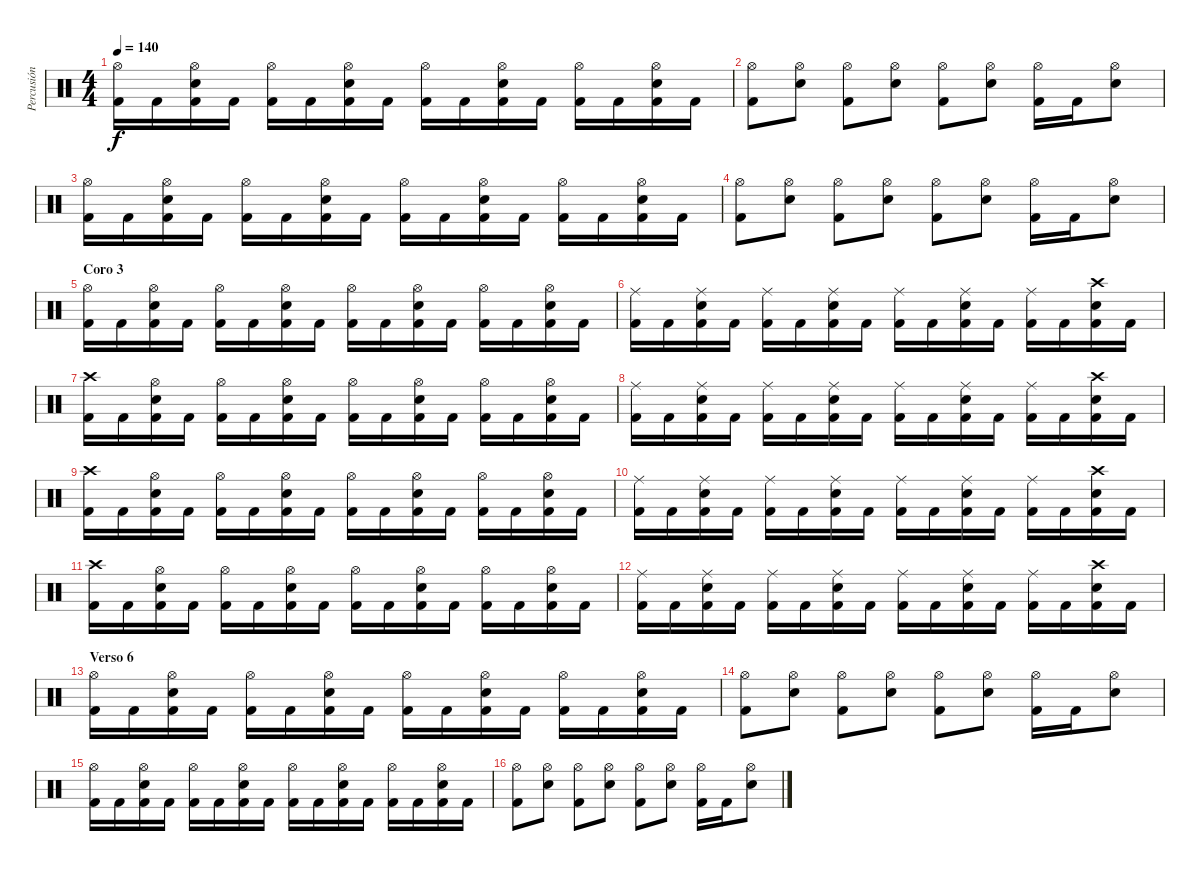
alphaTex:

\track ("Percusión" "Percusión") {instrument percussion}
\staff {score}
\articulation defaults
\ts (4 4)
\tempo 140
\clef neutral
\ks c
("Hi-Hat (open)" "Kick (hit) 2").16{dy f} "Kick (hit) 2".16 ("Hi-Hat (open)" "Snare (hit) 2" "Kick (hit) 2").16 "Kick (hit) 2".16 ("Hi-Hat (open)" "Kick (hit) 2").16 "Kick (hit) 2".16 ("Hi-Hat (open)" "Snare (hit) 2" "Kick (hit) 2").16 "Kick (hit) 2".16 ("Hi-Hat (open)" "Kick (hit) 2").16 "Kick (hit) 2".16 ("Hi-Hat (open)" "Snare (hit) 2" "Kick (hit) 2").16 "Kick (hit) 2".16 ("Hi-Hat (open)" "Kick (hit) 2").16 "Kick (hit) 2".16 ("Hi-Hat (open)" "Snare (hit) 2" "Kick (hit) 2").16 "Kick (hit) 2".16 |
("Hi-Hat (open)" "Kick (hit) 2").8 ("Hi-Hat (open)" "Snare (hit) 2").8 ("Hi-Hat (open)" "Kick (hit) 2").8 ("Hi-Hat (open)" "Snare (hit) 2").8 ("Hi-Hat (open)" "Kick (hit) 2").8 ("Hi-Hat (open)" "Snare (hit) 2").8 ("Hi-Hat (open)" "Kick (hit) 2").16 "Kick (hit) 2".16 ("Hi-Hat (open)" "Snare (hit) 2").8 |
("Hi-Hat (open)" "Kick (hit) 2").16 "Kick (hit) 2".16 ("Hi-Hat (open)" "Snare (hit) 2" "Kick (hit) 2").16 "Kick (hit) 2".16 ("Hi-Hat (open)" "Kick (hit) 2").16 "Kick (hit) 2".16 ("Hi-Hat (open)" "Snare (hit) 2" "Kick (hit) 2").16 "Kick (hit) 2".16 ("Hi-Hat (open)" "Kick (hit) 2").16 "Kick (hit) 2".16 ("Hi-Hat (open)" "Snare (hit) 2" "Kick (hit) 2").16 "Kick (hit) 2".16 ("Hi-Hat (open)" "Kick (hit) 2").16 "Kick (hit) 2".16 ("Hi-Hat (open)" "Snare (hit) 2" "Kick (hit) 2").16 "Kick (hit) 2".16 |
("Hi-Hat (open)" "Kick (hit) 2").8 ("Hi-Hat (open)" "Snare (hit) 2").8 ("Hi-Hat (open)" "Kick (hit) 2").8 ("Hi-Hat (open)" "Snare (hit) 2").8 ("Hi-Hat (open)" "Kick (hit) 2").8 ("Hi-Hat (open)" "Snare (hit) 2").8 ("Hi-Hat (open)" "Kick (hit) 2").16 "Kick (hit) 2".16 ("Hi-Hat (open)" "Snare (hit) 2").8 |
\section ("" "Coro 3")
("Hi-Hat (open)" "Kick (hit) 2").16 "Kick (hit) 2".16 ("Hi-Hat (open)" "Snare (hit) 2" "Kick (hit) 2").16 "Kick (hit) 2".16 ("Hi-Hat (open)" "Kick (hit) 2").16 "Kick (hit) 2".16 ("Hi-Hat (open)" "Snare (hit) 2" "Kick (hit) 2").16 "Kick (hit) 2".16 ("Hi-Hat (open)" "Kick (hit) 2").16 "Kick (hit) 2".16 ("Hi-Hat (open)" "Snare (hit) 2" "Kick (hit) 2").16 "Kick (hit) 2".16 ("Hi-Hat (open)" "Kick (hit) 2").16 "Kick (hit) 2".16 ("Hi-Hat (open)" "Snare (hit) 2" "Kick (hit) 2").16 "Kick (hit) 2".16 |
("Ride (middle)" "Kick (hit) 2").16 "Kick (hit) 2".16 ("Ride (middle)" "Snare (hit) 2" "Kick (hit) 2").16 "Kick (hit) 2".16 ("Ride (middle)" "Kick (hit) 2").16 "Kick (hit) 2".16 ("Ride (middle)" "Snare (hit) 2" "Kick (hit) 2").16 "Kick (hit) 2".16 ("Ride (middle)" "Kick (hit) 2").16 "Kick (hit) 2".16 ("Ride (middle)" "Snare (hit) 2" "Kick (hit) 2").16 "Kick (hit) 2".16 ("Ride (middle)" "Kick (hit) 2").16 "Kick (hit) 2".16 ("Crash high (hit)" "Snare (hit) 2" "Kick (hit) 2").16 "Kick (hit) 2".16 |
("Crash high (hit)" "Kick (hit) 2").16 "Kick (hit) 2".16 ("Hi-Hat (open)" "Snare (hit) 2" "Kick (hit) 2").16 "Kick (hit) 2".16 ("Hi-Hat (open)" "Kick (hit) 2").16 "Kick (hit) 2".16 ("Hi-Hat (open)" "Snare (hit) 2" "Kick (hit) 2").16 "Kick (hit) 2".16 ("Hi-Hat (open)" "Kick (hit) 2").16 "Kick (hit) 2".16 ("Hi-Hat (open)" "Snare (hit) 2" "Kick (hit) 2").16 "Kick (hit) 2".16 ("Hi-Hat (open)" "Kick (hit) 2").16 "Kick (hit) 2".16 ("Hi-Hat (open)" "Snare (hit) 2" "Kick (hit) 2").16 "Kick (hit) 2".16 |
("Ride (middle)" "Kick (hit) 2").16 "Kick (hit) 2".16 ("Ride (middle)" "Snare (hit) 2" "Kick (hit) 2").16 "Kick (hit) 2".16 ("Ride (middle)" "Kick (hit) 2").16 "Kick (hit) 2".16 ("Ride (middle)" "Snare (hit) 2" "Kick (hit) 2").16 "Kick (hit) 2".16 ("Ride (middle)" "Kick (hit) 2").16 "Kick (hit) 2".16 ("Ride (middle)" "Snare (hit) 2" "Kick (hit) 2").16 "Kick (hit) 2".16 ("Ride (middle)" "Kick (hit) 2").16 "Kick (hit) 2".16 ("Crash high (hit)" "Snare (hit) 2" "Kick (hit) 2").16 "Kick (hit) 2".16 |
("Crash high (hit)" "Kick (hit) 2").16 "Kick (hit) 2".16 ("Hi-Hat (open)" "Snare (hit) 2" "Kick (hit) 2").16 "Kick (hit) 2".16 ("Hi-Hat (open)" "Kick (hit) 2").16 "Kick (hit) 2".16 ("Hi-Hat (open)" "Snare (hit) 2" "Kick (hit) 2").16 "Kick (hit) 2".16 ("Hi-Hat (open)" "Kick (hit) 2").16 "Kick (hit) 2".16 ("Hi-Hat (open)" "Snare (hit) 2" "Kick (hit) 2").16 "Kick (hit) 2".16 ("Hi-Hat (open)" "Kick (hit) 2").16 "Kick (hit) 2".16 ("Hi-Hat (open)" "Snare (hit) 2" "Kick (hit) 2").16 "Kick (hit) 2".16 |
("Ride (middle)" "Kick (hit) 2").16 "Kick (hit) 2".16 ("Ride (middle)" "Snare (hit) 2" "Kick (hit) 2").16 "Kick (hit) 2".16 ("Ride (middle)" "Kick (hit) 2").16 "Kick (hit) 2".16 ("Ride (middle)" "Snare (hit) 2" "Kick (hit) 2").16 "Kick (hit) 2".16 ("Ride (middle)" "Kick (hit) 2").16 "Kick (hit) 2".16 ("Ride (middle)" "Snare (hit) 2" "Kick (hit) 2").16 "Kick (hit) 2".16 ("Ride (middle)" "Kick (hit) 2").16 "Kick (hit) 2".16 ("Crash high (hit)" "Snare (hit) 2" "Kick (hit) 2").16 "Kick (hit) 2".16 |
("Crash high (hit)" "Kick (hit) 2").16 "Kick (hit) 2".16 ("Hi-Hat (open)" "Snare (hit) 2" "Kick (hit) 2").16 "Kick (hit) 2".16 ("Hi-Hat (open)" "Kick (hit) 2").16 "Kick (hit) 2".16 ("Hi-Hat (open)" "Snare (hit) 2" "Kick (hit) 2").16 "Kick (hit) 2".16 ("Hi-Hat (open)" "Kick (hit) 2").16 "Kick (hit) 2".16 ("Hi-Hat (open)" "Snare (hit) 2" "Kick (hit) 2").16 "Kick (hit) 2".16 ("Hi-Hat (open)" "Kick (hit) 2").16 "Kick (hit) 2".16 ("Hi-Hat (open)" "Snare (hit) 2" "Kick (hit) 2").16 "Kick (hit) 2".16 |
("Ride (middle)" "Kick (hit) 2").16 "Kick (hit) 2".16 ("Ride (middle)" "Snare (hit) 2" "Kick (hit) 2").16 "Kick (hit) 2".16 ("Ride (middle)" "Kick (hit) 2").16 "Kick (hit) 2".16 ("Ride (middle)" "Snare (hit) 2" "Kick (hit) 2").16 "Kick (hit) 2".16 ("Ride (middle)" "Kick (hit) 2").16 "Kick (hit) 2".16 ("Ride (middle)" "Snare (hit) 2" "Kick (hit) 2").16 "Kick (hit) 2".16 ("Ride (middle)" "Kick (hit) 2").16 "Kick (hit) 2".16 ("Crash high (hit)" "Snare (hit) 2" "Kick (hit) 2").16 "Kick (hit) 2".16 |
\section ("" "Verso 6")
("Hi-Hat (open)" "Kick (hit) 2").16 "Kick (hit) 2".16 ("Hi-Hat (open)" "Snare (hit) 2" "Kick (hit) 2").16 "Kick (hit) 2".16 ("Hi-Hat (open)" "Kick (hit) 2").16 "Kick (hit) 2".16 ("Hi-Hat (open)" "Snare (hit) 2" "Kick (hit) 2").16 "Kick (hit) 2".16 ("Hi-Hat (open)" "Kick (hit) 2").16 "Kick (hit) 2".16 ("Hi-Hat (open)" "Snare (hit) 2" "Kick (hit) 2").16 "Kick (hit) 2".16 ("Hi-Hat (open)" "Kick (hit) 2").16 "Kick (hit) 2".16 ("Hi-Hat (open)" "Snare (hit) 2" "Kick (hit) 2").16 "Kick (hit) 2".16 |
("Hi-Hat (open)" "Kick (hit) 2").8 ("Hi-Hat (open)" "Snare (hit) 2").8 ("Hi-Hat (open)" "Kick (hit) 2").8 ("Hi-Hat (open)" "Snare (hit) 2").8 ("Hi-Hat (open)" "Kick (hit) 2").8 ("Hi-Hat (open)" "Snare (hit) 2").8 ("Hi-Hat (open)" "Kick (hit) 2").16 "Kick (hit) 2".16 ("Hi-Hat (open)" "Snare (hit) 2").8 |
("Hi-Hat (open)" "Kick (hit) 2").16 "Kick (hit) 2".16 ("Hi-Hat (open)" "Snare (hit) 2" "Kick (hit) 2").16 "Kick (hit) 2".16 ("Hi-Hat (open)" "Kick (hit) 2").16 "Kick (hit) 2".16 ("Hi-Hat (open)" "Snare (hit) 2" "Kick (hit) 2").16 "Kick (hit) 2".16 ("Hi-Hat (open)" "Kick (hit) 2").16 "Kick (hit) 2".16 ("Hi-Hat (open)" "Snare (hit) 2" "Kick (hit) 2").16 "Kick (hit) 2".16 ("Hi-Hat (open)" "Kick (hit) 2").16 "Kick (hit) 2".16 ("Hi-Hat (open)" "Snare (hit) 2" "Kick (hit) 2").16 "Kick (hit) 2".16 |
("Hi-Hat (open)" "Kick (hit) 2").8 ("Hi-Hat (open)" "Snare (hit) 2").8 ("Hi-Hat (open)" "Kick (hit) 2").8 ("Hi-Hat (open)" "Snare (hit) 2").8 ("Hi-Hat (open)" "Kick (hit) 2").8 ("Hi-Hat (open)" "Snare (hit) 2").8 ("Hi-Hat (open)" "Kick (hit) 2").16 "Kick (hit) 2".16 ("Hi-Hat (open)" "Snare (hit) 2").8
